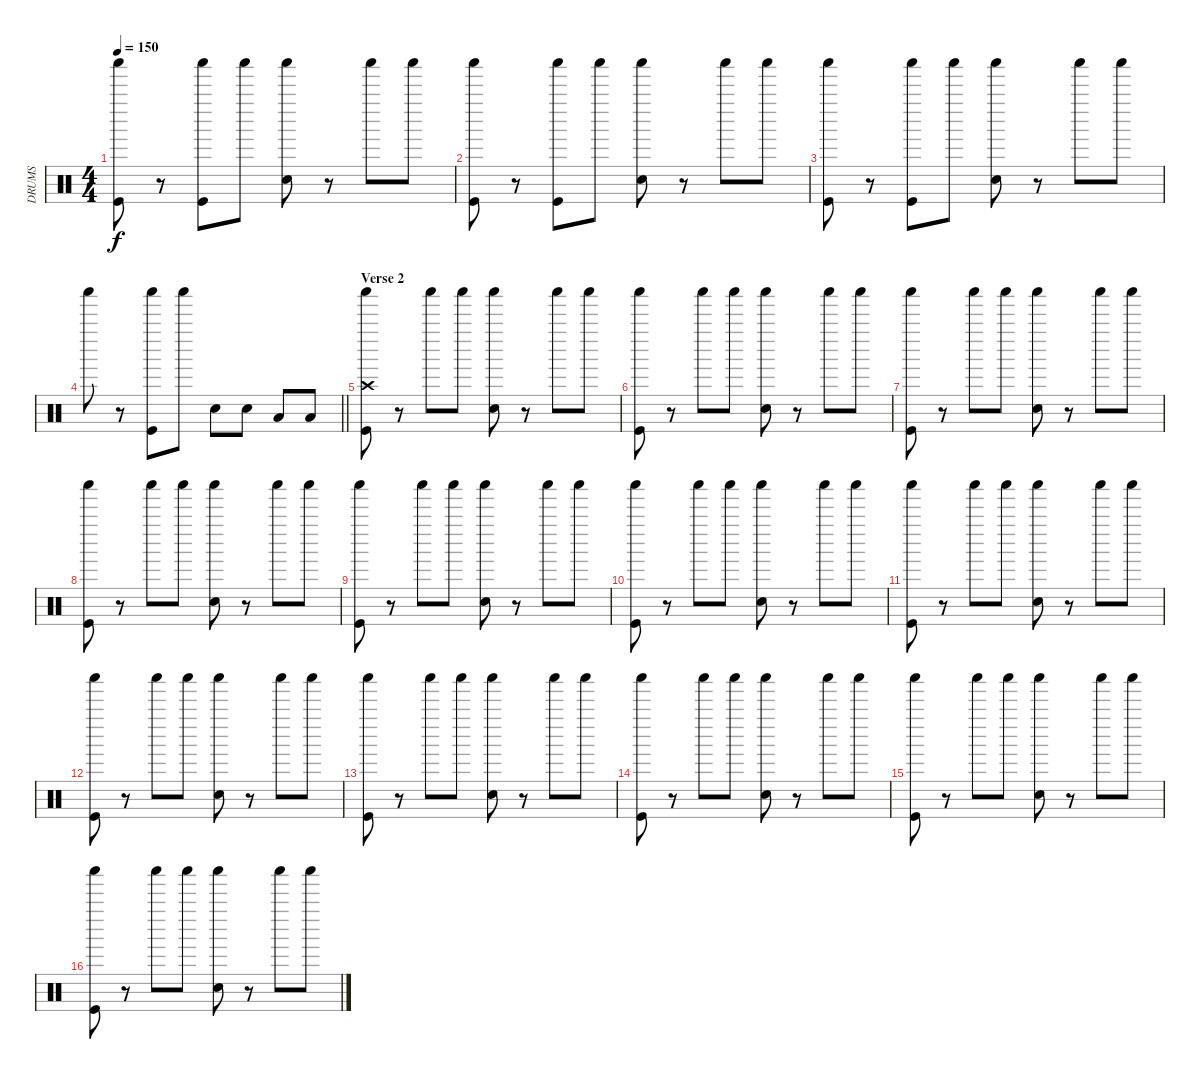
\track ("DRUMS" "DRUMS") {instrument percussion}
\staff {score}
\articulation defaults
\ts (4 4)
\tempo 150
\clef neutral
\ks c
("Shaker (hit)" "Kick (hit)").8{dy f} r.8 ("Shaker (hit)" "Kick (hit)").8 "Shaker (hit)".8 ("Shaker (hit)" "Snare (hit) 2").8 r.8 "Shaker (hit)".8 "Shaker (hit)".8 |
("Shaker (hit)" "Kick (hit)").8 r.8 ("Shaker (hit)" "Kick (hit)").8 "Shaker (hit)".8 ("Shaker (hit)" "Snare (hit) 2").8 r.8 "Shaker (hit)".8 "Shaker (hit)".8 |
("Shaker (hit)" "Kick (hit)").8 r.8 ("Shaker (hit)" "Kick (hit)").8 "Shaker (hit)".8 ("Shaker (hit)" "Snare (hit) 2").8 r.8 "Shaker (hit)".8 "Shaker (hit)".8 |
\barLineRight lightlight "Shaker (hit)".8
r.8 ("Shaker (hit)" "Kick (hit)").8 "Shaker (hit)".8 "Snare (hit) 2".8 "Snare (hit) 2".8 "Low Tom (hit)".8 "Low Floor Tom (hit)".8 |
\section ("" "Verse 2")
("Shaker (hit)" "Crash high (hit)" "Kick (hit)").8 r.8 "Shaker (hit)".8 "Shaker (hit)".8 ("Shaker (hit)" "Snare (hit) 2").8 r.8 "Shaker (hit)".8 "Shaker (hit)".8 |
("Shaker (hit)" "Kick (hit)").8 r.8 "Shaker (hit)".8 "Shaker (hit)".8 ("Shaker (hit)" "Snare (hit) 2").8 r.8 "Shaker (hit)".8 "Shaker (hit)".8 |
("Shaker (hit)" "Kick (hit)").8 r.8 "Shaker (hit)".8 "Shaker (hit)".8 ("Shaker (hit)" "Snare (hit) 2").8 r.8 "Shaker (hit)".8 "Shaker (hit)".8 |
("Shaker (hit)" "Kick (hit)").8 r.8 "Shaker (hit)".8 "Shaker (hit)".8 ("Shaker (hit)" "Snare (hit) 2").8 r.8 "Shaker (hit)".8 "Shaker (hit)".8 |
("Shaker (hit)" "Kick (hit)").8 r.8 "Shaker (hit)".8 "Shaker (hit)".8 ("Shaker (hit)" "Snare (hit) 2").8 r.8 "Shaker (hit)".8 "Shaker (hit)".8 |
("Shaker (hit)" "Kick (hit)").8 r.8 "Shaker (hit)".8 "Shaker (hit)".8 ("Shaker (hit)" "Snare (hit) 2").8 r.8 "Shaker (hit)".8 "Shaker (hit)".8 |
("Shaker (hit)" "Kick (hit)").8 r.8 "Shaker (hit)".8 "Shaker (hit)".8 ("Shaker (hit)" "Snare (hit) 2").8 r.8 "Shaker (hit)".8 "Shaker (hit)".8 |
("Shaker (hit)" "Kick (hit)").8 r.8 "Shaker (hit)".8 "Shaker (hit)".8 ("Shaker (hit)" "Snare (hit) 2").8 r.8 "Shaker (hit)".8 "Shaker (hit)".8 |
("Shaker (hit)" "Kick (hit)").8 r.8 "Shaker (hit)".8 "Shaker (hit)".8 ("Shaker (hit)" "Snare (hit) 2").8 r.8 "Shaker (hit)".8 "Shaker (hit)".8 |
("Shaker (hit)" "Kick (hit)").8 r.8 "Shaker (hit)".8 "Shaker (hit)".8 ("Shaker (hit)" "Snare (hit) 2").8 r.8 "Shaker (hit)".8 "Shaker (hit)".8 |
("Shaker (hit)" "Kick (hit)").8 r.8 "Shaker (hit)".8 "Shaker (hit)".8 ("Shaker (hit)" "Snare (hit) 2").8 r.8 "Shaker (hit)".8 "Shaker (hit)".8 |
("Shaker (hit)" "Kick (hit)").8 r.8 "Shaker (hit)".8 "Shaker (hit)".8 ("Shaker (hit)" "Snare (hit) 2").8 r.8 "Shaker (hit)".8 "Shaker (hit)".8
